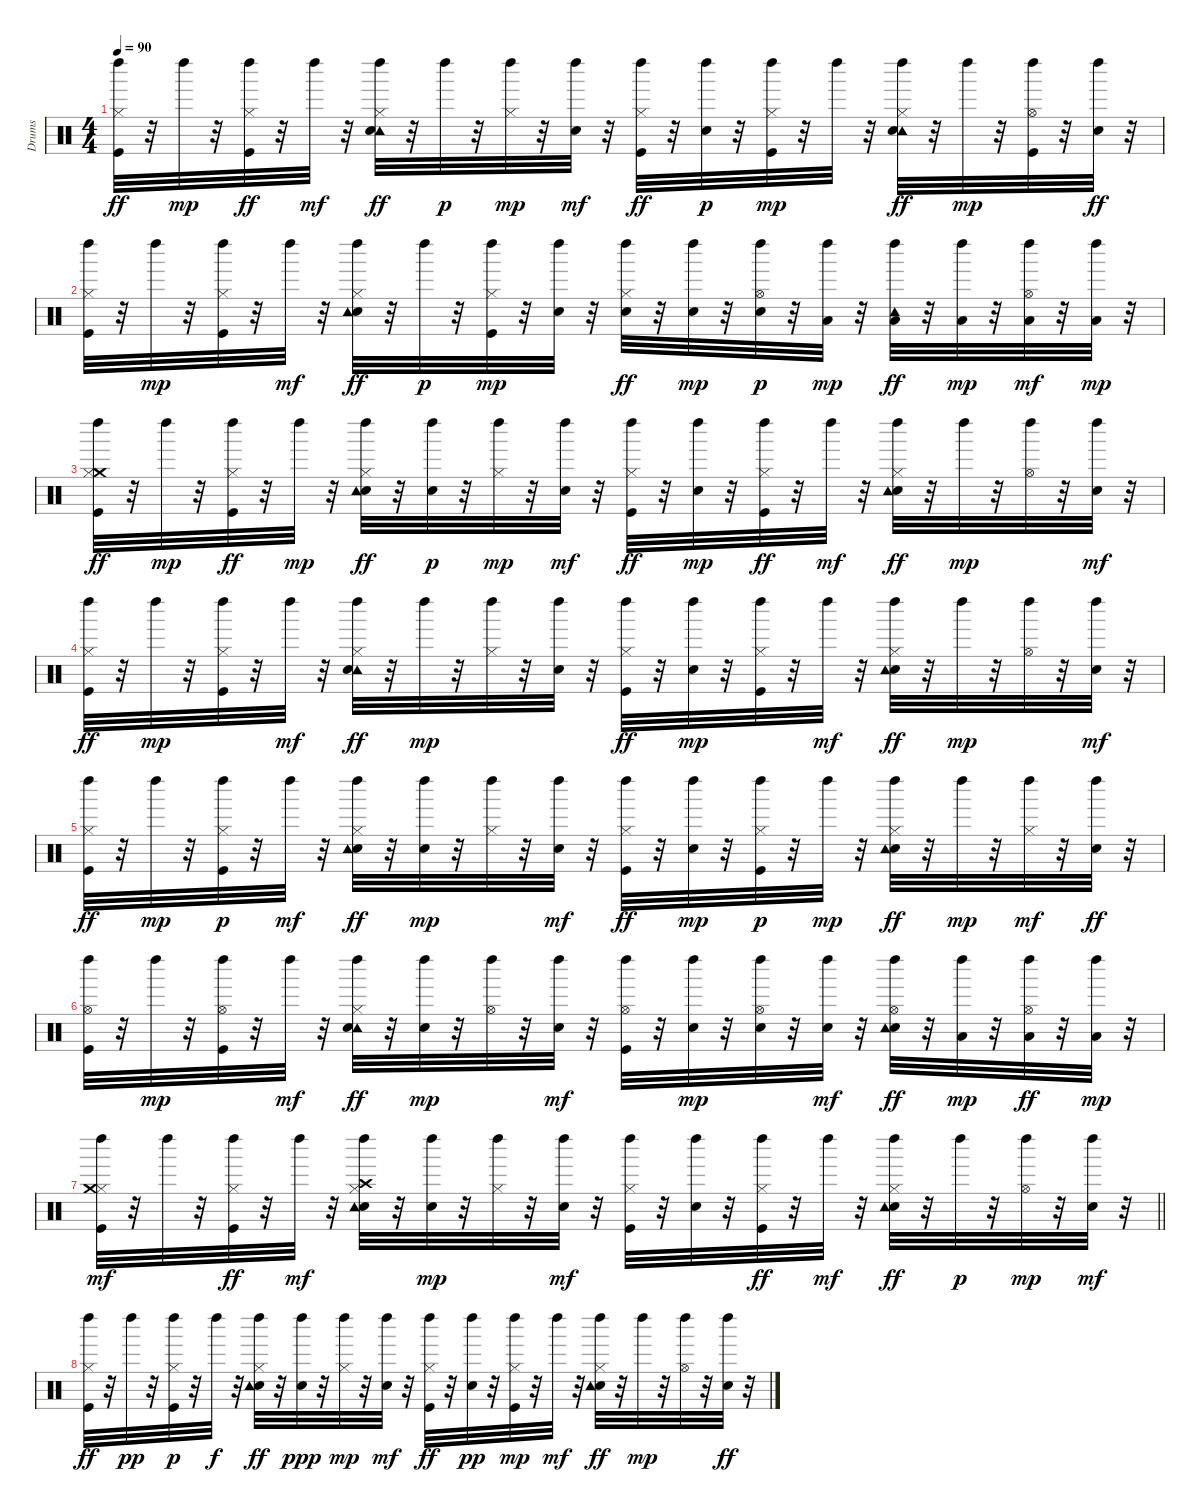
\track ("Drums" "Drums") {instrument percussion}
\staff {score}
\articulation defaults
\ts (4 4)
\tempo 90
\clef neutral
\ks c
("Kick (hit)" "Left Maraca (hit)" "Hi-Hat (closed)").32{dy ff} r.32 "Left Maraca (hit)".32{dy mp} r.32 ("Left Maraca (hit)" "Hi-Hat (closed)" "Kick (hit)").32{dy ff} r.32 "Left Maraca (hit)".32{dy mf} r.32 ("Tambourine (hit)" "Left Maraca (hit)" "Hi-Hat (closed)" "Electric Snare (hit)").32{dy ff} r.32 "Left Maraca (hit)".32{dy p} r.32 ("Hi-Hat (closed)" "Left Maraca (hit)").32{dy mp} r.32 ("Electric Snare (hit)" "Left Maraca (hit)").32{dy mf} r.32 ("Hi-Hat (closed)" "Kick (hit)" "Left Maraca (hit)").32{dy ff} r.32 ("Electric Snare (hit)" "Left Maraca (hit)").32{dy p} r.32 ("Kick (hit)" "Left Maraca (hit)" "Hi-Hat (closed)").32{dy mp} r.32 "Left Maraca (hit)".32 r.32 ("Hi-Hat (closed)" "Tambourine (hit)" "Left Maraca (hit)" "Electric Snare (hit)").32{dy ff} r.32 "Left Maraca (hit)".32{dy mp} r.32 ("Hi-Hat (open)" "Kick (hit)" "Left Maraca (hit)").32 r.32 ("Left Maraca (hit)" "Electric Snare (hit)").32{dy ff} r.32 |
("Hi-Hat (closed)" "Left Maraca (hit)" "Kick (hit)").32 r.32 "Left Maraca (hit)".32{dy mp} r.32 ("Hi-Hat (closed)" "Kick (hit)" "Left Maraca (hit)").32 r.32 "Left Maraca (hit)".32{dy mf} r.32 ("Hi-Hat (closed)" "Electric Snare (hit)" "Tambourine (hit)" "Left Maraca (hit)").32{dy ff} r.32 "Left Maraca (hit)".32{dy p} r.32 ("Hi-Hat (closed)" "Kick (hit)" "Left Maraca (hit)").32{dy mp} r.32 ("Electric Snare (hit)" "Left Maraca (hit)").32 r.32 ("Left Maraca (hit)" "Hi-Hat (closed)" "Electric Snare (hit)").32{dy ff} r.32 ("Electric Snare (hit)" "Left Maraca (hit)").32{dy mp} r.32 ("Electric Snare (hit)" "Left Maraca (hit)" "Hi-Hat (open)").32{dy p} r.32 ("Low Floor Tom (hit)" "Left Maraca (hit)").32{dy mp} r.32 ("Low Floor Tom (hit)" "Tambourine (hit)" "Left Maraca (hit)").32{dy ff} r.32 ("Low Tom (hit)" "Left Maraca (hit)").32{dy mp} r.32 ("Low Floor Tom (hit)" "Left Maraca (hit)" "Hi-Hat (open)").32{dy mf} r.32 ("Low Tom (hit)" "Left Maraca (hit)").32{dy mp} r.32 |
("Kick (hit)" "Left Maraca (hit)" "Crash medium (hit)" "Hi-Hat (closed)").32{dy ff} r.32 "Left Maraca (hit)".32{dy mp} r.32 ("Left Maraca (hit)" "Hi-Hat (closed)" "Kick (hit)").32{dy ff} r.32 "Left Maraca (hit)".32{dy mp} r.32 ("Left Maraca (hit)" "Hi-Hat (closed)" "Electric Snare (hit)" "Tambourine (hit)").32{dy ff} r.32 ("Electric Snare (hit)" "Left Maraca (hit)").32{dy p} r.32 ("Hi-Hat (closed)" "Left Maraca (hit)").32{dy mp} r.32 ("Electric Snare (hit)" "Left Maraca (hit)").32{dy mf} r.32 ("Hi-Hat (closed)" "Left Maraca (hit)" "Kick (hit)").32{dy ff} r.32 ("Electric Snare (hit)" "Left Maraca (hit)").32{dy mp} r.32 ("Hi-Hat (closed)" "Left Maraca (hit)" "Kick (hit)").32{dy ff} r.32 "Left Maraca (hit)".32{dy mf} r.32 ("Hi-Hat (closed)" "Electric Snare (hit)" "Tambourine (hit)" "Left Maraca (hit)").32{dy ff} r.32 "Left Maraca (hit)".32{dy mp} r.32 ("Hi-Hat (open)" "Left Maraca (hit)").32 r.32 ("Electric Snare (hit)" "Left Maraca (hit)").32{dy mf} r.32 |
("Kick (hit)" "Hi-Hat (closed)" "Left Maraca (hit)").32{dy ff} r.32 "Left Maraca (hit)".32{dy mp} r.32 ("Hi-Hat (closed)" "Kick (hit)" "Left Maraca (hit)").32 r.32 "Left Maraca (hit)".32{dy mf} r.32 ("Hi-Hat (closed)" "Tambourine (hit)" "Electric Snare (hit)" "Left Maraca (hit)").32{dy ff} r.32 "Left Maraca (hit)".32{dy mp} r.32 ("Hi-Hat (closed)" "Left Maraca (hit)").32 r.32 ("Electric Snare (hit)" "Left Maraca (hit)").32 r.32 ("Hi-Hat (closed)" "Kick (hit)" "Left Maraca (hit)").32{dy ff} r.32 ("Electric Snare (hit)" "Left Maraca (hit)").32{dy mp} r.32 ("Hi-Hat (closed)" "Kick (hit)" "Left Maraca (hit)").32 r.32 "Left Maraca (hit)".32{dy mf} r.32 ("Electric Snare (hit)" "Tambourine (hit)" "Hi-Hat (closed)" "Left Maraca (hit)").32{dy ff} r.32 "Left Maraca (hit)".32{dy mp} r.32 ("Hi-Hat (open)" "Left Maraca (hit)").32 r.32 ("Left Maraca (hit)" "Electric Snare (hit)").32{dy mf} r.32 |
("Hi-Hat (closed)" "Left Maraca (hit)" "Kick (hit)").32{dy ff} r.32 "Left Maraca (hit)".32{dy mp} r.32 ("Hi-Hat (closed)" "Kick (hit)" "Left Maraca (hit)").32{dy p} r.32 "Left Maraca (hit)".32{dy mf} r.32 ("Hi-Hat (closed)" "Electric Snare (hit)" "Tambourine (hit)" "Left Maraca (hit)").32{dy ff} r.32 ("Electric Snare (hit)" "Left Maraca (hit)").32{dy mp} r.32 ("Hi-Hat (closed)" "Left Maraca (hit)").32 r.32 ("Electric Snare (hit)" "Left Maraca (hit)").32{dy mf} r.32 ("Hi-Hat (closed)" "Kick (hit)" "Left Maraca (hit)").32{dy ff} r.32 ("Electric Snare (hit)" "Left Maraca (hit)").32{dy mp} r.32 ("Hi-Hat (closed)" "Kick (hit)" "Left Maraca (hit)").32{dy p} r.32 "Left Maraca (hit)".32{dy mp} r.32 ("Electric Snare (hit)" "Tambourine (hit)" "Left Maraca (hit)" "Hi-Hat (closed)").32{dy ff} r.32 "Left Maraca (hit)".32{dy mp} r.32 ("Left Maraca (hit)" "Hi-Hat (closed)").32{dy mf} r.32 ("Left Maraca (hit)" "Electric Snare (hit)").32{dy ff} r.32 |
("Hi-Hat (open)" "Kick (hit)" "Left Maraca (hit)").32 r.32 "Left Maraca (hit)".32{dy mp} r.32 ("Hi-Hat (open)" "Kick (hit)" "Left Maraca (hit)").32 r.32 "Left Maraca (hit)".32{dy mf} r.32 ("Tambourine (hit)" "Hi-Hat (closed)" "Electric Snare (hit)" "Left Maraca (hit)").32{dy ff} r.32 ("Left Maraca (hit)" "Electric Snare (hit)").32{dy mp} r.32 ("Hi-Hat (open)" "Left Maraca (hit)").32 r.32 ("Electric Snare (hit)" "Left Maraca (hit)").32{dy mf} r.32 ("Hi-Hat (open)" "Kick (hit)" "Left Maraca (hit)").32 r.32 ("Electric Snare (hit)" "Left Maraca (hit)").32{dy mp} r.32 ("Electric Snare (hit)" "Hi-Hat (open)" "Left Maraca (hit)").32 r.32 ("Electric Snare (hit)" "Left Maraca (hit)").32{dy mf} r.32 ("Electric Snare (hit)" "Tambourine (hit)" "Left Maraca (hit)" "Hi-Hat (open)").32{dy ff} r.32 ("Low Tom (hit)" "Left Maraca (hit)").32{dy mp} r.32 ("Low Floor Tom (hit)" "Left Maraca (hit)" "Hi-Hat (open)").32{dy ff} r.32 ("Low Floor Tom (hit)" "Left Maraca (hit)").32{dy mp} r.32 |
\barLineRight lightlight
("Kick (hit)" "Left Maraca (hit)" "Hi-Hat (closed)" "Crash medium (hit)").32{dy mf} r.32 "Left Maraca (hit)".32 r.32 ("Left Maraca (hit)" "Hi-Hat (closed)" "Kick (hit)").32{dy ff} r.32 "Left Maraca (hit)".32{dy mf} r.32 ("Hi-Hat (closed)" "Electric Snare (hit)" "Left Maraca (hit)" "Crash high (hit)" "Tambourine (hit)").32 r.32 ("Electric Snare (hit)" "Left Maraca (hit)").32{dy mp} r.32 ("Hi-Hat (closed)" "Left Maraca (hit)").32 r.32 ("Electric Snare (hit)" "Left Maraca (hit)").32{dy mf} r.32 ("Kick (hit)" "Left Maraca (hit)" "Hi-Hat (closed)").32 r.32 ("Electric Snare (hit)" "Left Maraca (hit)").32 r.32 ("Left Maraca (hit)" "Hi-Hat (closed)" "Kick (hit)").32{dy ff} r.32 "Left Maraca (hit)".32{dy mf} r.32 ("Hi-Hat (closed)" "Electric Snare (hit)" "Left Maraca (hit)" "Tambourine (hit)").32{dy ff} r.32 "Left Maraca (hit)".32{dy p} r.32 ("Hi-Hat (open)" "Left Maraca (hit)").32{dy mp} r.32 ("Electric Snare (hit)" "Left Maraca (hit)").32{dy mf} r.32 |
("Hi-Hat (closed)" "Left Maraca (hit)" "Kick (hit)").32{dy ff} r.32 "Left Maraca (hit)".32{dy pp} r.32 ("Hi-Hat (closed)" "Kick (hit)" "Left Maraca (hit)").32{dy p} r.32 "Left Maraca (hit)".32{dy f} r.32 ("Electric Snare (hit)" "Tambourine (hit)" "Hi-Hat (closed)" "Left Maraca (hit)").32{dy ff} r.32 ("Electric Snare (hit)" "Left Maraca (hit)").32{dy ppp} r.32 ("Hi-Hat (closed)" "Left Maraca (hit)").32{dy mp} r.32 ("Electric Snare (hit)" "Left Maraca (hit)").32{dy mf} r.32 ("Hi-Hat (closed)" "Kick (hit)" "Left Maraca (hit)").32{dy ff} r.32 ("Electric Snare (hit)" "Left Maraca (hit)").32{dy pp} r.32 ("Hi-Hat (closed)" "Kick (hit)" "Left Maraca (hit)").32{dy mp} r.32 "Left Maraca (hit)".32{dy mf} r.32 ("Hi-Hat (closed)" "Electric Snare (hit)" "Tambourine (hit)" "Left Maraca (hit)").32{dy ff} r.32 "Left Maraca (hit)".32{dy mp} r.32 ("Hi-Hat (open)" "Left Maraca (hit)").32 r.32 ("Electric Snare (hit)" "Left Maraca (hit)").32{dy ff} r.32
